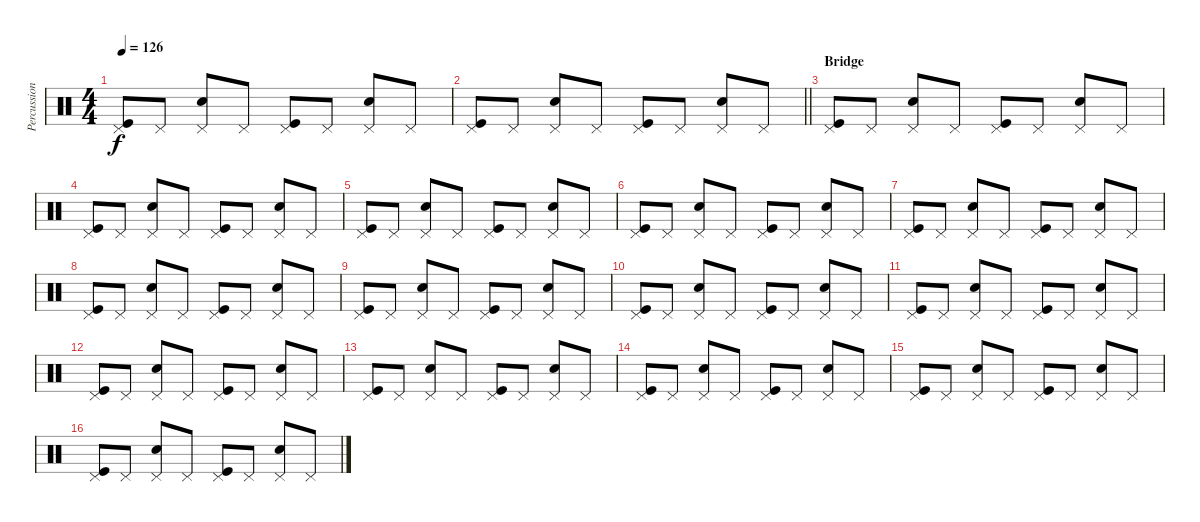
\track ("Percussion" "Percussion") {instrument percussion}
\staff {score}
\articulation defaults
\ts (4 4)
\tempo 126
\clef neutral
\ks c
("Pedal Hi-Hat (hit)" "Kick (hit)").8{dy f} "Pedal Hi-Hat (hit)".8 ("Pedal Hi-Hat (hit)" "Snare (hit) 2").8 "Pedal Hi-Hat (hit)".8 ("Pedal Hi-Hat (hit)" "Kick (hit)").8 "Pedal Hi-Hat (hit)".8 ("Pedal Hi-Hat (hit)" "Snare (hit) 2").8 "Pedal Hi-Hat (hit)".8 |
\barLineRight lightlight
("Pedal Hi-Hat (hit)" "Kick (hit)").8 "Pedal Hi-Hat (hit)".8 ("Pedal Hi-Hat (hit)" "Snare (hit) 2").8 "Pedal Hi-Hat (hit)".8 ("Pedal Hi-Hat (hit)" "Kick (hit)").8 "Pedal Hi-Hat (hit)".8 ("Pedal Hi-Hat (hit)" "Snare (hit) 2").8 "Pedal Hi-Hat (hit)".8 |
\section ("" "Bridge")
("Pedal Hi-Hat (hit)" "Kick (hit)").8 "Pedal Hi-Hat (hit)".8 ("Pedal Hi-Hat (hit)" "Snare (hit) 2").8 "Pedal Hi-Hat (hit)".8 ("Pedal Hi-Hat (hit)" "Kick (hit)").8 "Pedal Hi-Hat (hit)".8 ("Pedal Hi-Hat (hit)" "Snare (hit) 2").8 "Pedal Hi-Hat (hit)".8 |
("Pedal Hi-Hat (hit)" "Kick (hit)").8 "Pedal Hi-Hat (hit)".8 ("Pedal Hi-Hat (hit)" "Snare (hit) 2").8 "Pedal Hi-Hat (hit)".8 ("Pedal Hi-Hat (hit)" "Kick (hit)").8 "Pedal Hi-Hat (hit)".8 ("Pedal Hi-Hat (hit)" "Snare (hit) 2").8 "Pedal Hi-Hat (hit)".8 |
("Pedal Hi-Hat (hit)" "Kick (hit)").8 "Pedal Hi-Hat (hit)".8 ("Pedal Hi-Hat (hit)" "Snare (hit) 2").8 "Pedal Hi-Hat (hit)".8 ("Pedal Hi-Hat (hit)" "Kick (hit)").8 "Pedal Hi-Hat (hit)".8 ("Pedal Hi-Hat (hit)" "Snare (hit) 2").8 "Pedal Hi-Hat (hit)".8 |
("Pedal Hi-Hat (hit)" "Kick (hit)").8 "Pedal Hi-Hat (hit)".8 ("Pedal Hi-Hat (hit)" "Snare (hit) 2").8 "Pedal Hi-Hat (hit)".8 ("Pedal Hi-Hat (hit)" "Kick (hit)").8 "Pedal Hi-Hat (hit)".8 ("Pedal Hi-Hat (hit)" "Snare (hit) 2").8 "Pedal Hi-Hat (hit)".8 |
("Pedal Hi-Hat (hit)" "Kick (hit)").8 "Pedal Hi-Hat (hit)".8 ("Pedal Hi-Hat (hit)" "Snare (hit) 2").8 "Pedal Hi-Hat (hit)".8 ("Pedal Hi-Hat (hit)" "Kick (hit)").8 "Pedal Hi-Hat (hit)".8 ("Pedal Hi-Hat (hit)" "Snare (hit) 2").8 "Pedal Hi-Hat (hit)".8 |
("Pedal Hi-Hat (hit)" "Kick (hit)").8 "Pedal Hi-Hat (hit)".8 ("Pedal Hi-Hat (hit)" "Snare (hit) 2").8 "Pedal Hi-Hat (hit)".8 ("Pedal Hi-Hat (hit)" "Kick (hit)").8 "Pedal Hi-Hat (hit)".8 ("Pedal Hi-Hat (hit)" "Snare (hit) 2").8 "Pedal Hi-Hat (hit)".8 |
("Pedal Hi-Hat (hit)" "Kick (hit)").8 "Pedal Hi-Hat (hit)".8 ("Pedal Hi-Hat (hit)" "Snare (hit) 2").8 "Pedal Hi-Hat (hit)".8 ("Pedal Hi-Hat (hit)" "Kick (hit)").8 "Pedal Hi-Hat (hit)".8 ("Pedal Hi-Hat (hit)" "Snare (hit) 2").8 "Pedal Hi-Hat (hit)".8 |
("Pedal Hi-Hat (hit)" "Kick (hit)").8 "Pedal Hi-Hat (hit)".8 ("Pedal Hi-Hat (hit)" "Snare (hit) 2").8 "Pedal Hi-Hat (hit)".8 ("Pedal Hi-Hat (hit)" "Kick (hit)").8 "Pedal Hi-Hat (hit)".8 ("Pedal Hi-Hat (hit)" "Snare (hit) 2").8 "Pedal Hi-Hat (hit)".8 |
("Pedal Hi-Hat (hit)" "Kick (hit)").8 "Pedal Hi-Hat (hit)".8 ("Pedal Hi-Hat (hit)" "Snare (hit) 2").8 "Pedal Hi-Hat (hit)".8 ("Pedal Hi-Hat (hit)" "Kick (hit)").8 "Pedal Hi-Hat (hit)".8 ("Pedal Hi-Hat (hit)" "Snare (hit) 2").8 "Pedal Hi-Hat (hit)".8 |
("Pedal Hi-Hat (hit)" "Kick (hit)").8 "Pedal Hi-Hat (hit)".8 ("Pedal Hi-Hat (hit)" "Snare (hit) 2").8 "Pedal Hi-Hat (hit)".8 ("Pedal Hi-Hat (hit)" "Kick (hit)").8 "Pedal Hi-Hat (hit)".8 ("Pedal Hi-Hat (hit)" "Snare (hit) 2").8 "Pedal Hi-Hat (hit)".8 |
("Pedal Hi-Hat (hit)" "Kick (hit)").8 "Pedal Hi-Hat (hit)".8 ("Pedal Hi-Hat (hit)" "Snare (hit) 2").8 "Pedal Hi-Hat (hit)".8 ("Pedal Hi-Hat (hit)" "Kick (hit)").8 "Pedal Hi-Hat (hit)".8 ("Pedal Hi-Hat (hit)" "Snare (hit) 2").8 "Pedal Hi-Hat (hit)".8 |
("Pedal Hi-Hat (hit)" "Kick (hit)").8 "Pedal Hi-Hat (hit)".8 ("Pedal Hi-Hat (hit)" "Snare (hit) 2").8 "Pedal Hi-Hat (hit)".8 ("Pedal Hi-Hat (hit)" "Kick (hit)").8 "Pedal Hi-Hat (hit)".8 ("Pedal Hi-Hat (hit)" "Snare (hit) 2").8 "Pedal Hi-Hat (hit)".8 |
("Pedal Hi-Hat (hit)" "Kick (hit)").8 "Pedal Hi-Hat (hit)".8 ("Pedal Hi-Hat (hit)" "Snare (hit) 2").8 "Pedal Hi-Hat (hit)".8 ("Pedal Hi-Hat (hit)" "Kick (hit)").8 "Pedal Hi-Hat (hit)".8 ("Pedal Hi-Hat (hit)" "Snare (hit) 2").8 "Pedal Hi-Hat (hit)".8 |
("Pedal Hi-Hat (hit)" "Kick (hit)").8 "Pedal Hi-Hat (hit)".8 ("Pedal Hi-Hat (hit)" "Snare (hit) 2").8 "Pedal Hi-Hat (hit)".8 ("Pedal Hi-Hat (hit)" "Kick (hit)").8 "Pedal Hi-Hat (hit)".8 ("Pedal Hi-Hat (hit)" "Snare (hit) 2").8 "Pedal Hi-Hat (hit)".8
